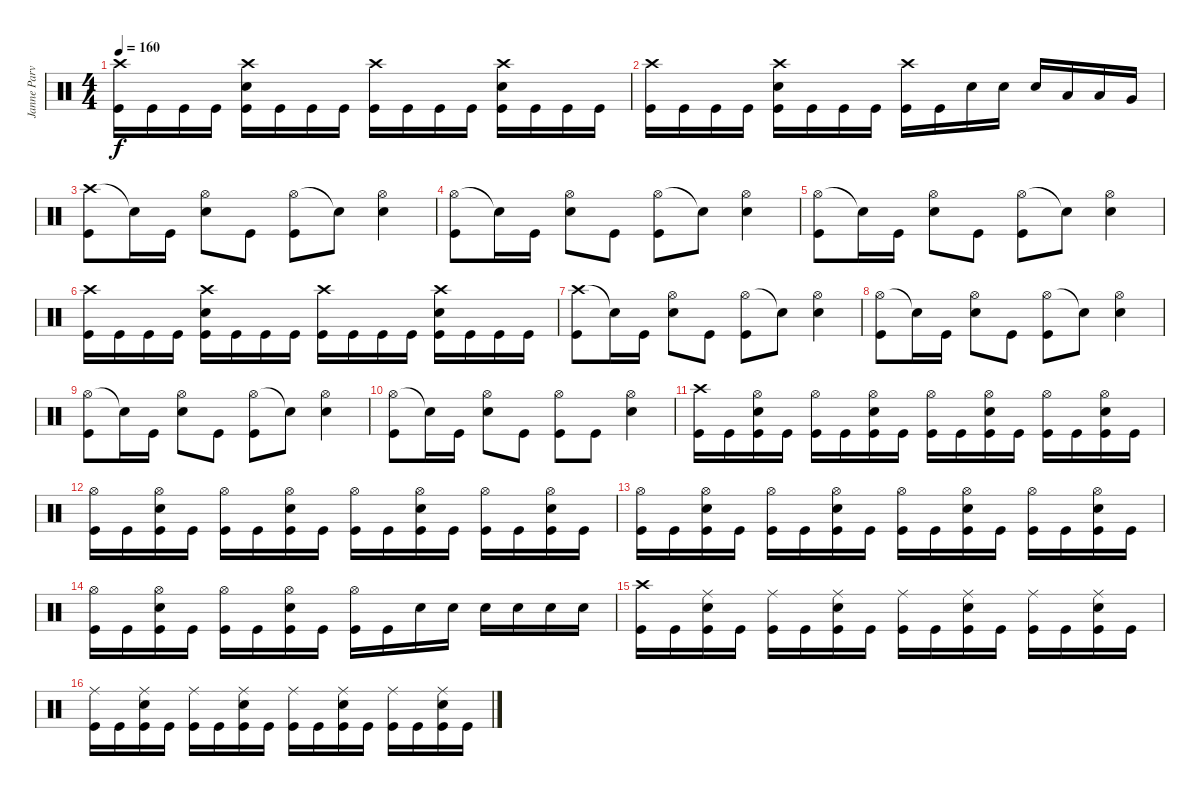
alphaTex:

\track ("Janne Parviainen" "Janne Parv") {instrument percussion}
\staff {score}
\articulation defaults
\ts (4 4)
\tempo 160
\clef neutral
\ks c
("Crash high (hit)" "Kick (hit)").16{dy f} "Kick (hit)".16 "Kick (hit)".16 "Kick (hit)".16 ("Crash high (hit)" "Electric Snare (hit)" "Kick (hit)").16 "Kick (hit)".16 "Kick (hit)".16 "Kick (hit)".16 ("Crash high (hit)" "Kick (hit)").16 "Kick (hit)".16 "Kick (hit)".16 "Kick (hit)".16 ("Crash high (hit)" "Electric Snare (hit)" "Kick (hit)").16 "Kick (hit)".16 "Kick (hit)".16 "Kick (hit)".16 |
("Crash high (hit)" "Kick (hit)").16 "Kick (hit)".16 "Kick (hit)".16 "Kick (hit)".16 ("Crash high (hit)" "Electric Snare (hit)" "Kick (hit)").16 "Kick (hit)".16 "Kick (hit)".16 "Kick (hit)".16 ("Crash high (hit)" "Kick (hit)").16 "Kick (hit)".16 "Electric Snare (hit)".16 "Electric Snare (hit)".16 "Electric Snare (hit)".16 "Low Tom (hit)".16 "Low Tom (hit)".16 "Very Low Tom (hit)".16 |
("Crash high (hit)" "Kick (hit)").8 "Snare (hit)"{t}.16 "Kick (hit)".16 ("Hi-Hat (open)" "Electric Snare (hit)").8 "Kick (hit)".8 ("Hi-Hat (open)" "Kick (hit)").8 "Snare (hit)"{t}.8 ("Hi-Hat (open)" "Electric Snare (hit)").4 |
("Hi-Hat (open)" "Kick (hit)").8 "Snare (hit)"{t}.16 "Kick (hit)".16 ("Hi-Hat (open)" "Electric Snare (hit)").8 "Kick (hit)".8 ("Hi-Hat (open)" "Kick (hit)").8 "Snare (hit)"{t}.8 ("Hi-Hat (open)" "Electric Snare (hit)").4 |
("Hi-Hat (open)" "Kick (hit)").8 "Snare (hit)"{t}.16 "Kick (hit)".16 ("Hi-Hat (open)" "Electric Snare (hit)").8 "Kick (hit)".8 ("Hi-Hat (open)" "Kick (hit)").8 "Snare (hit)"{t}.8 ("Hi-Hat (open)" "Electric Snare (hit)").4 |
("Crash high (hit)" "Kick (hit)").16 "Kick (hit)".16 "Kick (hit)".16 "Kick (hit)".16 ("Crash high (hit)" "Electric Snare (hit)" "Kick (hit)").16 "Kick (hit)".16 "Kick (hit)".16 "Kick (hit)".16 ("Crash high (hit)" "Kick (hit)").16 "Kick (hit)".16 "Kick (hit)".16 "Kick (hit)".16 ("Crash high (hit)" "Electric Snare (hit)" "Kick (hit)").16 "Kick (hit)".16 "Kick (hit)".16 "Kick (hit)".16 |
("Crash high (hit)" "Kick (hit)").8 "Snare (hit)"{t}.16 "Kick (hit)".16 ("Hi-Hat (open)" "Electric Snare (hit)").8 "Kick (hit)".8 ("Hi-Hat (open)" "Kick (hit)").8 "Snare (hit)"{t}.8 ("Hi-Hat (open)" "Electric Snare (hit)").4 |
("Hi-Hat (open)" "Kick (hit)").8 "Snare (hit)"{t}.16 "Kick (hit)".16 ("Hi-Hat (open)" "Electric Snare (hit)").8 "Kick (hit)".8 ("Hi-Hat (open)" "Kick (hit)").8 "Snare (hit)"{t}.8 ("Hi-Hat (open)" "Electric Snare (hit)").4 |
("Hi-Hat (open)" "Kick (hit)").8 "Snare (hit)"{t}.16 "Kick (hit)".16 ("Hi-Hat (open)" "Electric Snare (hit)").8 "Kick (hit)".8 ("Hi-Hat (open)" "Kick (hit)").8 "Snare (hit)"{t}.8 ("Hi-Hat (open)" "Electric Snare (hit)").4 |
("Hi-Hat (open)" "Kick (hit)").8 "Snare (hit)"{t}.16 "Kick (hit)".16 ("Hi-Hat (open)" "Electric Snare (hit)").8 "Kick (hit)".8 ("Hi-Hat (open)" "Kick (hit)").8 "Kick (hit)".8 ("Hi-Hat (open)" "Electric Snare (hit)").4 |
("Crash high (hit)" "Kick (hit)").16 "Kick (hit)".16 ("Hi-Hat (open)" "Electric Snare (hit)" "Kick (hit)").16 "Kick (hit)".16 ("Hi-Hat (open)" "Kick (hit)").16 "Kick (hit)".16 ("Hi-Hat (open)" "Electric Snare (hit)" "Kick (hit)").16 "Kick (hit)".16 ("Hi-Hat (open)" "Kick (hit)").16 "Kick (hit)".16 ("Hi-Hat (open)" "Electric Snare (hit)" "Kick (hit)").16 "Kick (hit)".16 ("Hi-Hat (open)" "Kick (hit)").16 "Kick (hit)".16 ("Hi-Hat (open)" "Electric Snare (hit)" "Kick (hit)").16 "Kick (hit)".16 |
("Hi-Hat (open)" "Kick (hit)").16 "Kick (hit)".16 ("Hi-Hat (open)" "Electric Snare (hit)" "Kick (hit)").16 "Kick (hit)".16 ("Hi-Hat (open)" "Kick (hit)").16 "Kick (hit)".16 ("Hi-Hat (open)" "Electric Snare (hit)" "Kick (hit)").16 "Kick (hit)".16 ("Hi-Hat (open)" "Kick (hit)").16 "Kick (hit)".16 ("Hi-Hat (open)" "Electric Snare (hit)" "Kick (hit)").16 "Kick (hit)".16 ("Hi-Hat (open)" "Kick (hit)").16 "Kick (hit)".16 ("Hi-Hat (open)" "Electric Snare (hit)" "Kick (hit)").16 "Kick (hit)".16 |
("Hi-Hat (open)" "Kick (hit)").16 "Kick (hit)".16 ("Hi-Hat (open)" "Electric Snare (hit)" "Kick (hit)").16 "Kick (hit)".16 ("Hi-Hat (open)" "Kick (hit)").16 "Kick (hit)".16 ("Hi-Hat (open)" "Electric Snare (hit)" "Kick (hit)").16 "Kick (hit)".16 ("Hi-Hat (open)" "Kick (hit)").16 "Kick (hit)".16 ("Hi-Hat (open)" "Electric Snare (hit)" "Kick (hit)").16 "Kick (hit)".16 ("Hi-Hat (open)" "Kick (hit)").16 "Kick (hit)".16 ("Hi-Hat (open)" "Electric Snare (hit)" "Kick (hit)").16 "Kick (hit)".16 |
("Hi-Hat (open)" "Kick (hit)").16 "Kick (hit)".16 ("Hi-Hat (open)" "Electric Snare (hit)" "Kick (hit)").16 "Kick (hit)".16 ("Hi-Hat (open)" "Kick (hit)").16 "Kick (hit)".16 ("Hi-Hat (open)" "Electric Snare (hit)" "Kick (hit)").16 "Kick (hit)".16 ("Hi-Hat (open)" "Kick (hit)").16 "Kick (hit)".16 "Electric Snare (hit)".16 "Electric Snare (hit)".16 "Electric Snare (hit)".16 "Electric Snare (hit)".16 "Electric Snare (hit)".16 "Electric Snare (hit)".16 |
("Crash high (hit)" "Kick (hit)").16 "Kick (hit)".16 ("Ride (middle)" "Electric Snare (hit)" "Kick (hit)").16 "Kick (hit)".16 ("Ride (middle)" "Kick (hit)").16 "Kick (hit)".16 ("Ride (middle)" "Electric Snare (hit)" "Kick (hit)").16 "Kick (hit)".16 ("Ride (middle)" "Kick (hit)").16 "Kick (hit)".16 ("Ride (middle)" "Electric Snare (hit)" "Kick (hit)").16 "Kick (hit)".16 ("Ride (middle)" "Kick (hit)").16 "Kick (hit)".16 ("Ride (middle)" "Electric Snare (hit)" "Kick (hit)").16 "Kick (hit)".16 |
("Ride (middle)" "Kick (hit)").16 "Kick (hit)".16 ("Ride (middle)" "Electric Snare (hit)" "Kick (hit)").16 "Kick (hit)".16 ("Ride (middle)" "Kick (hit)").16 "Kick (hit)".16 ("Ride (middle)" "Electric Snare (hit)" "Kick (hit)").16 "Kick (hit)".16 ("Ride (middle)" "Kick (hit)").16 "Kick (hit)".16 ("Ride (middle)" "Electric Snare (hit)" "Kick (hit)").16 "Kick (hit)".16 ("Ride (middle)" "Kick (hit)").16 "Kick (hit)".16 ("Ride (middle)" "Electric Snare (hit)" "Kick (hit)").16 "Kick (hit)".16
